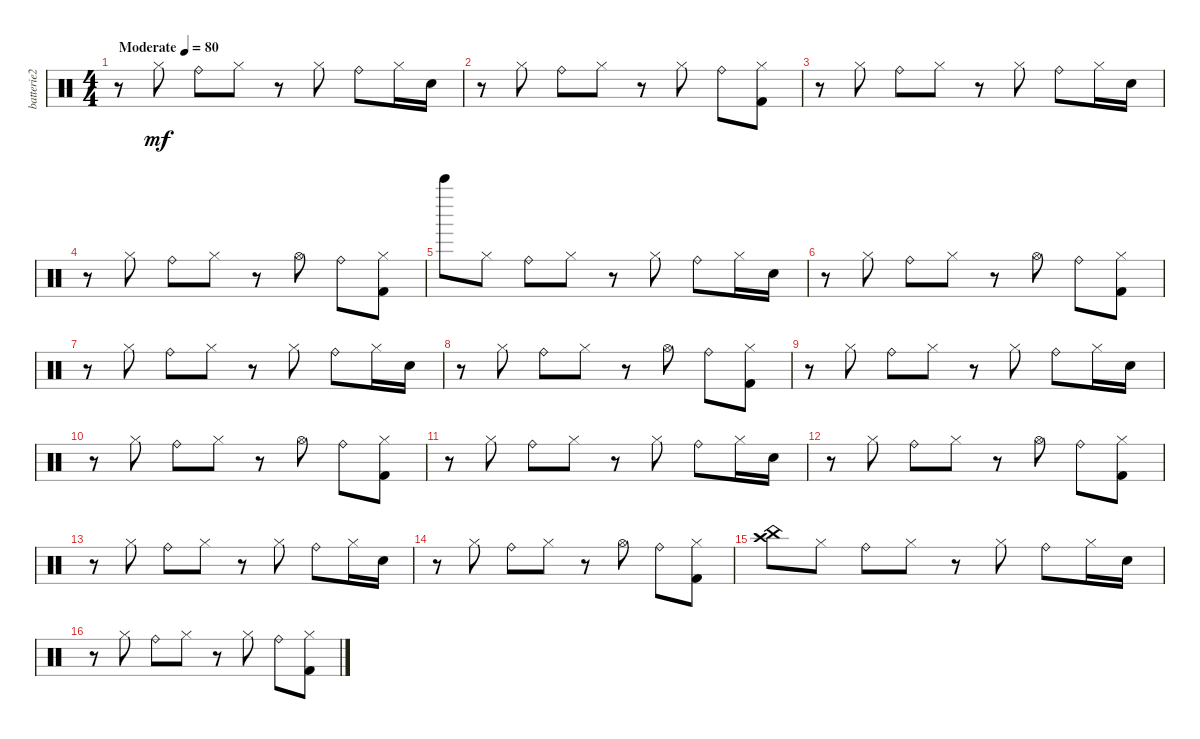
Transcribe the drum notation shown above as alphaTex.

\track ("batterie2" "batterie2") {instrument percussion}
\staff {score}
\articulation defaults
\ts (4 4)
\tempo (80 "Moderate")
\clef neutral
\ks c
r.8{dy mf} "Hi-Hat (closed)".8 "Ride (bell)".8 "Hi-Hat (closed)".8 r.8 "Hi-Hat (closed)".8 "Ride (bell)".8 "Hi-Hat (closed)".16 "Electric Snare (hit)".16 |
r.8 "Hi-Hat (closed)".8 "Ride (bell)".8 "Hi-Hat (closed)".8 r.8 "Hi-Hat (closed)".8 "Ride (bell)".8 ("Kick (hit) 2" "Hi-Hat (closed)").8 |
r.8 "Hi-Hat (closed)".8 "Ride (bell)".8 "Hi-Hat (closed)".8 r.8 "Hi-Hat (closed)".8 "Ride (bell)".8 "Hi-Hat (closed)".16 "Electric Snare (hit)".16 |
r.8 "Hi-Hat (closed)".8 "Ride (bell)".8 "Hi-Hat (closed)".8 r.8 "Hi-Hat (open)".8 "Ride (bell)".8 ("Kick (hit) 2" "Hi-Hat (closed)").8 |
"Bell Tree (hit)".8 "Hi-Hat (closed)".8 "Ride (bell)".8 "Hi-Hat (closed)".8 r.8 "Hi-Hat (closed)".8 "Ride (bell)".8 "Hi-Hat (closed)".16 "Electric Snare (hit)".16 |
r.8 "Hi-Hat (closed)".8 "Ride (bell)".8 "Hi-Hat (closed)".8 r.8 "Hi-Hat (open)".8 "Ride (bell)".8 ("Kick (hit) 2" "Hi-Hat (closed)").8 |
r.8 "Hi-Hat (closed)".8 "Ride (bell)".8 "Hi-Hat (closed)".8 r.8 "Hi-Hat (closed)".8 "Ride (bell)".8 "Hi-Hat (closed)".16 "Electric Snare (hit)".16 |
r.8 "Hi-Hat (closed)".8 "Ride (bell)".8 "Hi-Hat (closed)".8 r.8 "Hi-Hat (open)".8 "Ride (bell)".8 ("Kick (hit) 2" "Hi-Hat (closed)").8 |
r.8 "Hi-Hat (closed)".8 "Ride (bell)".8 "Hi-Hat (closed)".8 r.8 "Hi-Hat (closed)".8 "Ride (bell)".8 "Hi-Hat (closed)".16 "Electric Snare (hit)".16 |
r.8 "Hi-Hat (closed)".8 "Ride (bell)".8 "Hi-Hat (closed)".8 r.8 "Hi-Hat (open)".8 "Ride (bell)".8 ("Kick (hit) 2" "Hi-Hat (closed)").8 |
r.8 "Hi-Hat (closed)".8 "Ride (bell)".8 "Hi-Hat (closed)".8 r.8 "Hi-Hat (closed)".8 "Ride (bell)".8 "Hi-Hat (closed)".16 "Electric Snare (hit)".16 |
r.8 "Hi-Hat (closed)".8 "Ride (bell)".8 "Hi-Hat (closed)".8 r.8 "Hi-Hat (open)".8 "Ride (bell)".8 ("Kick (hit) 2" "Hi-Hat (closed)").8 |
r.8 "Hi-Hat (closed)".8 "Ride (bell)".8 "Hi-Hat (closed)".8 r.8 "Hi-Hat (closed)".8 "Ride (bell)".8 "Hi-Hat (closed)".16 "Electric Snare (hit)".16 |
r.8 "Hi-Hat (closed)".8 "Ride (bell)".8 "Hi-Hat (closed)".8 r.8 "Hi-Hat (open)".8 "Ride (bell)".8 ("Kick (hit) 2" "Hi-Hat (closed)").8 |
("Crash high (hit)" "China (hit)").8 "Hi-Hat (closed)".8 "Ride (bell)".8 "Hi-Hat (closed)".8 r.8 "Hi-Hat (closed)".8 "Ride (bell)".8 "Hi-Hat (closed)".16 "Electric Snare (hit)".16 |
r.8 "Hi-Hat (closed)".8 "Ride (bell)".8 "Hi-Hat (closed)".8 r.8 "Hi-Hat (closed)".8 "Ride (bell)".8 ("Kick (hit) 2" "Hi-Hat (closed)").8
